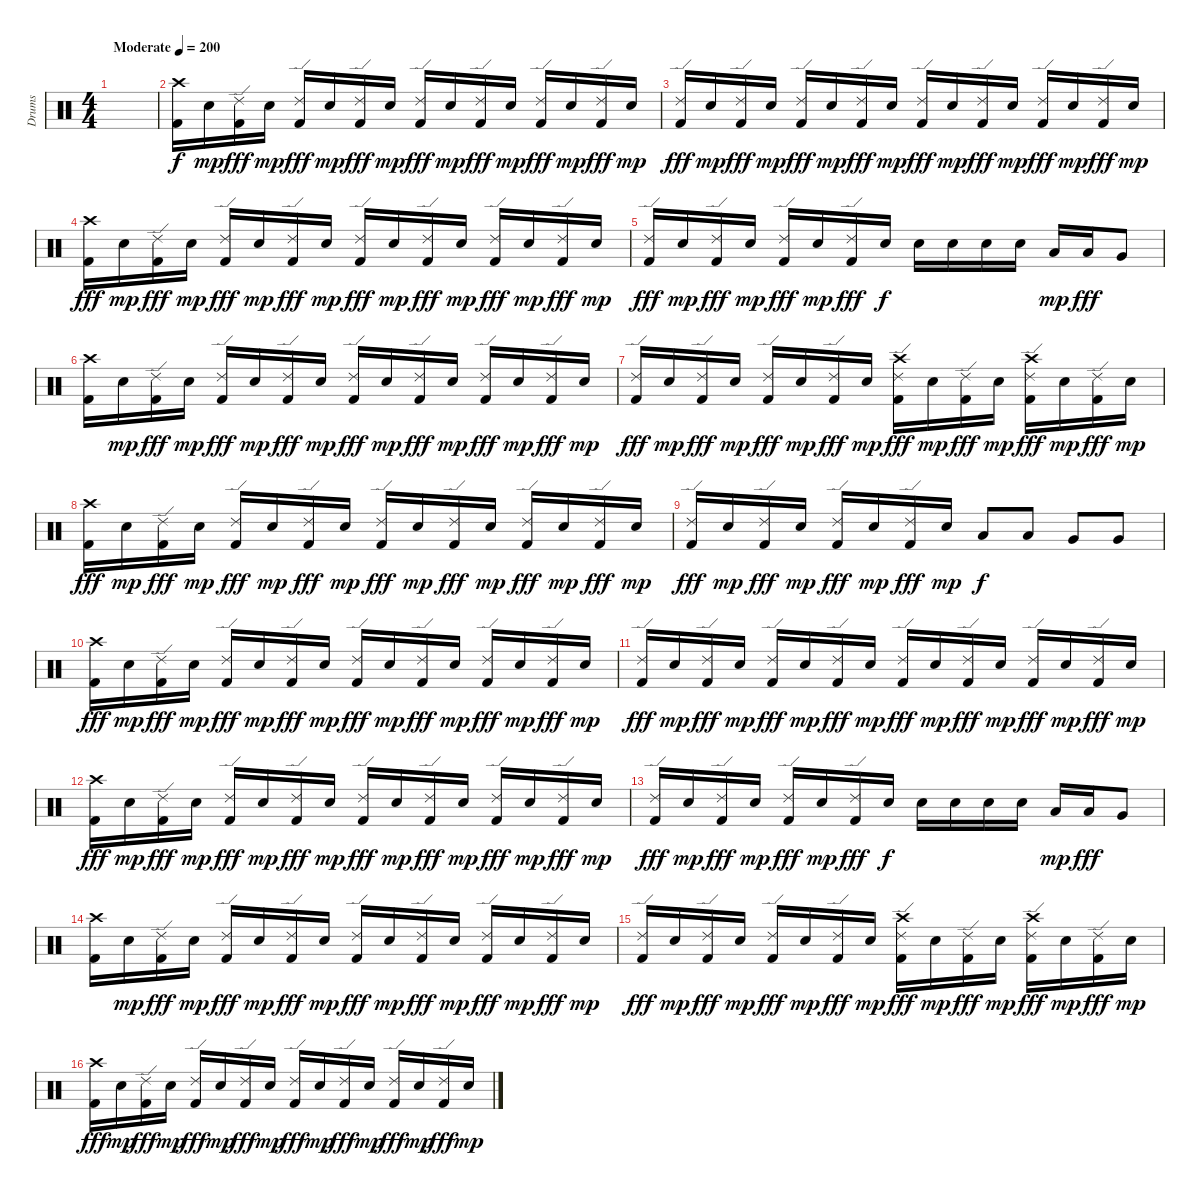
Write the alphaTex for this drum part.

\track ("Drums" "Drums") {instrument percussion}
\staff {score}
\articulation defaults
\ts (4 4)
\tempo (200 "Moderate")
\clef neutral
\ks c
|
("Crash high (hit)" "Kick (hit) 2").16 "Electric Snare (hit)".16{dy mp} ("Ride (edge) 2" "Kick (hit) 2").16{dy fff} "Electric Snare (hit)".16{dy mp} ("Ride (edge) 2" "Kick (hit) 2").16{dy fff} "Electric Snare (hit)".16{dy mp} ("Ride (edge) 2" "Kick (hit) 2").16{dy fff} "Electric Snare (hit)".16{dy mp} ("Ride (edge) 2" "Kick (hit) 2").16{dy fff} "Electric Snare (hit)".16{dy mp} ("Ride (edge) 2" "Kick (hit) 2").16{dy fff} "Electric Snare (hit)".16{dy mp} ("Ride (edge) 2" "Kick (hit) 2").16{dy fff} "Electric Snare (hit)".16{dy mp} ("Ride (edge) 2" "Kick (hit) 2").16{dy fff} "Electric Snare (hit)".16{dy mp} |
("Ride (edge) 2" "Kick (hit) 2").16{dy fff} "Electric Snare (hit)".16{dy mp} ("Ride (edge) 2" "Kick (hit) 2").16{dy fff} "Electric Snare (hit)".16{dy mp} ("Ride (edge) 2" "Kick (hit) 2").16{dy fff} "Electric Snare (hit)".16{dy mp} ("Ride (edge) 2" "Kick (hit) 2").16{dy fff} "Electric Snare (hit)".16{dy mp} ("Ride (edge) 2" "Kick (hit) 2").16{dy fff} "Electric Snare (hit)".16{dy mp} ("Ride (edge) 2" "Kick (hit) 2").16{dy fff} "Electric Snare (hit)".16{dy mp} ("Ride (edge) 2" "Kick (hit) 2").16{dy fff} "Electric Snare (hit)".16{dy mp} ("Ride (edge) 2" "Kick (hit) 2").16{dy fff} "Electric Snare (hit)".16{dy mp} |
("Crash high (hit)" "Kick (hit) 2").16{dy fff} "Electric Snare (hit)".16{dy mp} ("Ride (edge) 2" "Kick (hit) 2").16{dy fff} "Electric Snare (hit)".16{dy mp} ("Ride (edge) 2" "Kick (hit) 2").16{dy fff} "Electric Snare (hit)".16{dy mp} ("Ride (edge) 2" "Kick (hit) 2").16{dy fff} "Electric Snare (hit)".16{dy mp} ("Ride (edge) 2" "Kick (hit) 2").16{dy fff} "Electric Snare (hit)".16{dy mp} ("Ride (edge) 2" "Kick (hit) 2").16{dy fff} "Electric Snare (hit)".16{dy mp} ("Ride (edge) 2" "Kick (hit) 2").16{dy fff} "Electric Snare (hit)".16{dy mp} ("Ride (edge) 2" "Kick (hit) 2").16{dy fff} "Electric Snare (hit)".16{dy mp} |
("Ride (edge) 2" "Kick (hit) 2").16{dy fff} "Electric Snare (hit)".16{dy mp} ("Ride (edge) 2" "Kick (hit) 2").16{dy fff} "Electric Snare (hit)".16{dy mp} ("Ride (edge) 2" "Kick (hit) 2").16{dy fff} "Electric Snare (hit)".16{dy mp} ("Ride (edge) 2" "Kick (hit) 2").16{dy fff} "Electric Snare (hit)".16{dy f} "Electric Snare (hit)".16 "Electric Snare (hit)".16 "Electric Snare (hit)".16 "Electric Snare (hit)".16 "Low Tom (hit)".16{dy mp} "Low Tom (hit)".16{dy fff} "Very Low Tom (hit)".8 |
("Crash high (hit)" "Kick (hit) 2").16 "Electric Snare (hit)".16{dy mp} ("Ride (edge) 2" "Kick (hit) 2").16{dy fff} "Electric Snare (hit)".16{dy mp} ("Ride (edge) 2" "Kick (hit) 2").16{dy fff} "Electric Snare (hit)".16{dy mp} ("Ride (edge) 2" "Kick (hit) 2").16{dy fff} "Electric Snare (hit)".16{dy mp} ("Ride (edge) 2" "Kick (hit) 2").16{dy fff} "Electric Snare (hit)".16{dy mp} ("Ride (edge) 2" "Kick (hit) 2").16{dy fff} "Electric Snare (hit)".16{dy mp} ("Ride (edge) 2" "Kick (hit) 2").16{dy fff} "Electric Snare (hit)".16{dy mp} ("Ride (edge) 2" "Kick (hit) 2").16{dy fff} "Electric Snare (hit)".16{dy mp} |
("Ride (edge) 2" "Kick (hit) 2").16{dy fff} "Electric Snare (hit)".16{dy mp} ("Ride (edge) 2" "Kick (hit) 2").16{dy fff} "Electric Snare (hit)".16{dy mp} ("Ride (edge) 2" "Kick (hit) 2").16{dy fff} "Electric Snare (hit)".16{dy mp} ("Ride (edge) 2" "Kick (hit) 2").16{dy fff} "Electric Snare (hit)".16{dy mp} ("Crash high (hit)" "Ride (edge) 2" "Kick (hit) 2").16{dy fff} "Electric Snare (hit)".16{dy mp} ("Ride (edge) 2" "Kick (hit) 2").16{dy fff} "Electric Snare (hit)".16{dy mp} ("Crash high (hit)" "Ride (edge) 2" "Kick (hit) 2").16{dy fff} "Electric Snare (hit)".16{dy mp} ("Ride (edge) 2" "Kick (hit) 2").16{dy fff} "Electric Snare (hit)".16{dy mp} |
("Crash high (hit)" "Kick (hit) 2").16{dy fff} "Electric Snare (hit)".16{dy mp} ("Ride (edge) 2" "Kick (hit) 2").16{dy fff} "Electric Snare (hit)".16{dy mp} ("Ride (edge) 2" "Kick (hit) 2").16{dy fff} "Electric Snare (hit)".16{dy mp} ("Ride (edge) 2" "Kick (hit) 2").16{dy fff} "Electric Snare (hit)".16{dy mp} ("Ride (edge) 2" "Kick (hit) 2").16{dy fff} "Electric Snare (hit)".16{dy mp} ("Ride (edge) 2" "Kick (hit) 2").16{dy fff} "Electric Snare (hit)".16{dy mp} ("Ride (edge) 2" "Kick (hit) 2").16{dy fff} "Electric Snare (hit)".16{dy mp} ("Ride (edge) 2" "Kick (hit) 2").16{dy fff} "Electric Snare (hit)".16{dy mp} |
("Ride (edge) 2" "Kick (hit) 2").16{dy fff} "Electric Snare (hit)".16{dy mp} ("Ride (edge) 2" "Kick (hit) 2").16{dy fff} "Electric Snare (hit)".16{dy mp} ("Ride (edge) 2" "Kick (hit) 2").16{dy fff} "Electric Snare (hit)".16{dy mp} ("Ride (edge) 2" "Kick (hit) 2").16{dy fff} "Electric Snare (hit)".16{dy mp} "Low Tom (hit)".8{dy f} "Low Tom (hit)".8 "Very Low Tom (hit)".8 "Very Low Tom (hit)".8 |
("Crash high (hit)" "Kick (hit) 2").16{dy fff} "Electric Snare (hit)".16{dy mp} ("Ride (edge) 2" "Kick (hit) 2").16{dy fff} "Electric Snare (hit)".16{dy mp} ("Ride (edge) 2" "Kick (hit) 2").16{dy fff} "Electric Snare (hit)".16{dy mp} ("Ride (edge) 2" "Kick (hit) 2").16{dy fff} "Electric Snare (hit)".16{dy mp} ("Ride (edge) 2" "Kick (hit) 2").16{dy fff} "Electric Snare (hit)".16{dy mp} ("Ride (edge) 2" "Kick (hit) 2").16{dy fff} "Electric Snare (hit)".16{dy mp} ("Ride (edge) 2" "Kick (hit) 2").16{dy fff} "Electric Snare (hit)".16{dy mp} ("Ride (edge) 2" "Kick (hit) 2").16{dy fff} "Electric Snare (hit)".16{dy mp} |
("Ride (edge) 2" "Kick (hit) 2").16{dy fff} "Electric Snare (hit)".16{dy mp} ("Ride (edge) 2" "Kick (hit) 2").16{dy fff} "Electric Snare (hit)".16{dy mp} ("Ride (edge) 2" "Kick (hit) 2").16{dy fff} "Electric Snare (hit)".16{dy mp} ("Ride (edge) 2" "Kick (hit) 2").16{dy fff} "Electric Snare (hit)".16{dy mp} ("Ride (edge) 2" "Kick (hit) 2").16{dy fff} "Electric Snare (hit)".16{dy mp} ("Ride (edge) 2" "Kick (hit) 2").16{dy fff} "Electric Snare (hit)".16{dy mp} ("Ride (edge) 2" "Kick (hit) 2").16{dy fff} "Electric Snare (hit)".16{dy mp} ("Ride (edge) 2" "Kick (hit) 2").16{dy fff} "Electric Snare (hit)".16{dy mp} |
("Crash high (hit)" "Kick (hit) 2").16{dy fff} "Electric Snare (hit)".16{dy mp} ("Ride (edge) 2" "Kick (hit) 2").16{dy fff} "Electric Snare (hit)".16{dy mp} ("Ride (edge) 2" "Kick (hit) 2").16{dy fff} "Electric Snare (hit)".16{dy mp} ("Ride (edge) 2" "Kick (hit) 2").16{dy fff} "Electric Snare (hit)".16{dy mp} ("Ride (edge) 2" "Kick (hit) 2").16{dy fff} "Electric Snare (hit)".16{dy mp} ("Ride (edge) 2" "Kick (hit) 2").16{dy fff} "Electric Snare (hit)".16{dy mp} ("Ride (edge) 2" "Kick (hit) 2").16{dy fff} "Electric Snare (hit)".16{dy mp} ("Ride (edge) 2" "Kick (hit) 2").16{dy fff} "Electric Snare (hit)".16{dy mp} |
("Ride (edge) 2" "Kick (hit) 2").16{dy fff} "Electric Snare (hit)".16{dy mp} ("Ride (edge) 2" "Kick (hit) 2").16{dy fff} "Electric Snare (hit)".16{dy mp} ("Ride (edge) 2" "Kick (hit) 2").16{dy fff} "Electric Snare (hit)".16{dy mp} ("Ride (edge) 2" "Kick (hit) 2").16{dy fff} "Electric Snare (hit)".16{dy f} "Electric Snare (hit)".16 "Electric Snare (hit)".16 "Electric Snare (hit)".16 "Electric Snare (hit)".16 "Low Tom (hit)".16{dy mp} "Low Tom (hit)".16{dy fff} "Very Low Tom (hit)".8 |
("Crash high (hit)" "Kick (hit) 2").16 "Electric Snare (hit)".16{dy mp} ("Ride (edge) 2" "Kick (hit) 2").16{dy fff} "Electric Snare (hit)".16{dy mp} ("Ride (edge) 2" "Kick (hit) 2").16{dy fff} "Electric Snare (hit)".16{dy mp} ("Ride (edge) 2" "Kick (hit) 2").16{dy fff} "Electric Snare (hit)".16{dy mp} ("Ride (edge) 2" "Kick (hit) 2").16{dy fff} "Electric Snare (hit)".16{dy mp} ("Ride (edge) 2" "Kick (hit) 2").16{dy fff} "Electric Snare (hit)".16{dy mp} ("Ride (edge) 2" "Kick (hit) 2").16{dy fff} "Electric Snare (hit)".16{dy mp} ("Ride (edge) 2" "Kick (hit) 2").16{dy fff} "Electric Snare (hit)".16{dy mp} |
("Ride (edge) 2" "Kick (hit) 2").16{dy fff} "Electric Snare (hit)".16{dy mp} ("Ride (edge) 2" "Kick (hit) 2").16{dy fff} "Electric Snare (hit)".16{dy mp} ("Ride (edge) 2" "Kick (hit) 2").16{dy fff} "Electric Snare (hit)".16{dy mp} ("Ride (edge) 2" "Kick (hit) 2").16{dy fff} "Electric Snare (hit)".16{dy mp} ("Crash high (hit)" "Ride (edge) 2" "Kick (hit) 2").16{dy fff} "Electric Snare (hit)".16{dy mp} ("Ride (edge) 2" "Kick (hit) 2").16{dy fff} "Electric Snare (hit)".16{dy mp} ("Crash high (hit)" "Ride (edge) 2" "Kick (hit) 2").16{dy fff} "Electric Snare (hit)".16{dy mp} ("Ride (edge) 2" "Kick (hit) 2").16{dy fff} "Electric Snare (hit)".16{dy mp} |
("Crash high (hit)" "Kick (hit) 2").16{dy fff} "Electric Snare (hit)".16{dy mp} ("Ride (edge) 2" "Kick (hit) 2").16{dy fff} "Electric Snare (hit)".16{dy mp} ("Ride (edge) 2" "Kick (hit) 2").16{dy fff} "Electric Snare (hit)".16{dy mp} ("Ride (edge) 2" "Kick (hit) 2").16{dy fff} "Electric Snare (hit)".16{dy mp} ("Ride (edge) 2" "Kick (hit) 2").16{dy fff} "Electric Snare (hit)".16{dy mp} ("Ride (edge) 2" "Kick (hit) 2").16{dy fff} "Electric Snare (hit)".16{dy mp} ("Ride (edge) 2" "Kick (hit) 2").16{dy fff} "Electric Snare (hit)".16{dy mp} ("Ride (edge) 2" "Kick (hit) 2").16{dy fff} "Electric Snare (hit)".16{dy mp}
